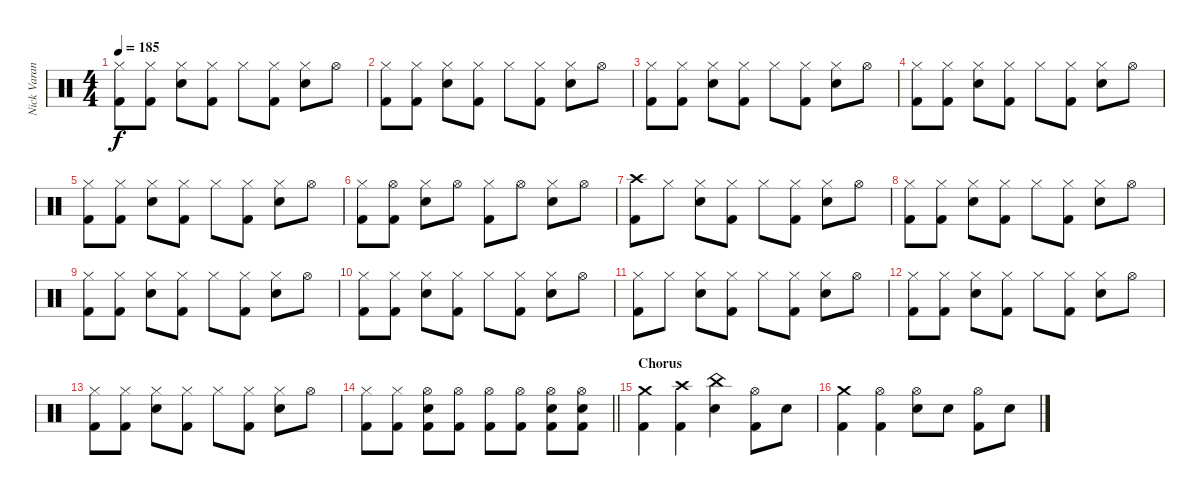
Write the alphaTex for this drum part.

\track ("Nick Varano (Drums)" "Nick Varan") {instrument percussion}
\staff {score}
\articulation defaults
\ts (4 4)
\tempo 185
\clef neutral
\ks c
("Hi-Hat (closed)" "Kick (hit) 2").8{dy f} ("Hi-Hat (closed)" "Kick (hit) 2").8 ("Hi-Hat (closed)" "Electric Snare (hit)").8 ("Hi-Hat (closed)" "Kick (hit) 2").8 "Hi-Hat (closed)".8 ("Hi-Hat (closed)" "Kick (hit) 2").8 ("Hi-Hat (closed)" "Electric Snare (hit)").8 "Hi-Hat (open)".8 |
("Hi-Hat (closed)" "Kick (hit) 2").8 ("Hi-Hat (closed)" "Kick (hit) 2").8 ("Hi-Hat (closed)" "Electric Snare (hit)").8 ("Hi-Hat (closed)" "Kick (hit) 2").8 "Hi-Hat (closed)".8 ("Hi-Hat (closed)" "Kick (hit) 2").8 ("Hi-Hat (closed)" "Electric Snare (hit)").8 "Hi-Hat (open)".8 |
("Hi-Hat (closed)" "Kick (hit) 2").8 ("Hi-Hat (closed)" "Kick (hit) 2").8 ("Hi-Hat (closed)" "Electric Snare (hit)").8 ("Hi-Hat (closed)" "Kick (hit) 2").8 "Hi-Hat (closed)".8 ("Hi-Hat (closed)" "Kick (hit) 2").8 ("Hi-Hat (closed)" "Electric Snare (hit)").8 "Hi-Hat (open)".8 |
("Hi-Hat (closed)" "Kick (hit) 2").8 ("Hi-Hat (closed)" "Kick (hit) 2").8 ("Hi-Hat (closed)" "Electric Snare (hit)").8 ("Hi-Hat (closed)" "Kick (hit) 2").8 "Hi-Hat (closed)".8 ("Hi-Hat (closed)" "Kick (hit) 2").8 ("Hi-Hat (closed)" "Electric Snare (hit)").8 "Hi-Hat (open)".8 |
("Hi-Hat (closed)" "Kick (hit) 2").8 ("Hi-Hat (closed)" "Kick (hit) 2").8 ("Hi-Hat (closed)" "Electric Snare (hit)").8 ("Hi-Hat (closed)" "Kick (hit) 2").8 "Hi-Hat (closed)".8 ("Hi-Hat (closed)" "Kick (hit) 2").8 ("Hi-Hat (closed)" "Electric Snare (hit)").8 "Hi-Hat (open)".8 |
("Hi-Hat (closed)" "Kick (hit) 2").8 ("Hi-Hat (open)" "Kick (hit) 2").8 ("Hi-Hat (closed)" "Electric Snare (hit)").8 "Hi-Hat (open)".8 ("Hi-Hat (closed)" "Kick (hit) 2").8 "Hi-Hat (open)".8 ("Hi-Hat (closed)" "Electric Snare (hit)").8 "Hi-Hat (open)".8 |
("Crash high (hit)" "Kick (hit) 2").8 "Hi-Hat (closed)".8 ("Hi-Hat (closed)" "Electric Snare (hit)").8 ("Hi-Hat (closed)" "Kick (hit) 2").8 "Hi-Hat (closed)".8 ("Hi-Hat (closed)" "Kick (hit) 2").8 ("Hi-Hat (closed)" "Electric Snare (hit)").8 "Hi-Hat (open)".8 |
("Hi-Hat (closed)" "Kick (hit) 2").8 ("Hi-Hat (closed)" "Kick (hit) 2").8 ("Hi-Hat (closed)" "Electric Snare (hit)").8 ("Hi-Hat (closed)" "Kick (hit) 2").8 "Hi-Hat (closed)".8 ("Hi-Hat (closed)" "Kick (hit) 2").8 ("Hi-Hat (closed)" "Electric Snare (hit)").8 "Hi-Hat (open)".8 |
("Hi-Hat (closed)" "Kick (hit) 2").8 ("Hi-Hat (closed)" "Kick (hit) 2").8 ("Hi-Hat (closed)" "Electric Snare (hit)").8 ("Hi-Hat (closed)" "Kick (hit) 2").8 "Hi-Hat (closed)".8 ("Hi-Hat (closed)" "Kick (hit) 2").8 ("Hi-Hat (closed)" "Electric Snare (hit)").8 "Hi-Hat (open)".8 |
("Hi-Hat (closed)" "Kick (hit) 2").8 ("Hi-Hat (closed)" "Kick (hit) 2").8 ("Hi-Hat (closed)" "Electric Snare (hit)").8 ("Hi-Hat (closed)" "Kick (hit) 2").8 "Hi-Hat (closed)".8 ("Hi-Hat (closed)" "Kick (hit) 2").8 ("Hi-Hat (closed)" "Electric Snare (hit)").8 "Hi-Hat (open)".8 |
("Hi-Hat (closed)" "Kick (hit) 2").8 "Hi-Hat (closed)".8 ("Hi-Hat (closed)" "Electric Snare (hit)").8 ("Hi-Hat (closed)" "Kick (hit) 2").8 "Hi-Hat (closed)".8 ("Hi-Hat (closed)" "Kick (hit) 2").8 ("Hi-Hat (closed)" "Electric Snare (hit)").8 "Hi-Hat (open)".8 |
("Hi-Hat (closed)" "Kick (hit) 2").8 ("Hi-Hat (closed)" "Kick (hit) 2").8 ("Hi-Hat (closed)" "Electric Snare (hit)").8 ("Hi-Hat (closed)" "Kick (hit) 2").8 "Hi-Hat (closed)".8 ("Hi-Hat (closed)" "Kick (hit) 2").8 ("Hi-Hat (closed)" "Electric Snare (hit)").8 "Hi-Hat (open)".8 |
("Hi-Hat (closed)" "Kick (hit) 2").8 ("Hi-Hat (closed)" "Kick (hit) 2").8 ("Hi-Hat (closed)" "Electric Snare (hit)").8 ("Hi-Hat (closed)" "Kick (hit) 2").8 "Hi-Hat (closed)".8 ("Hi-Hat (closed)" "Kick (hit) 2").8 ("Hi-Hat (closed)" "Electric Snare (hit)").8 "Hi-Hat (open)".8 |
\barLineRight lightlight
("Hi-Hat (closed)" "Kick (hit) 2").8 ("Hi-Hat (closed)" "Kick (hit) 2").8 ("Hi-Hat (open)" "Electric Snare (hit)" "Kick (hit) 2").8 ("Hi-Hat (open)" "Kick (hit) 2").8 ("Hi-Hat (open)" "Kick (hit) 2").8 ("Hi-Hat (open)" "Kick (hit) 2").8 ("Hi-Hat (open)" "Electric Snare (hit)" "Kick (hit) 2").8 ("Hi-Hat (open)" "Electric Snare (hit)" "Kick (hit) 2").8 |
\section ("" "Chorus")
("Crash medium (hit)" "Kick (hit) 2").4 ("Crash high (hit)" "Kick (hit) 2").4 ("China (hit)" "Electric Snare (hit)").4 ("Hi-Hat (open)" "Kick (hit) 2").8 "Electric Snare (hit)".8 |
("Crash medium (hit)" "Kick (hit) 2").4 ("Hi-Hat (open)" "Kick (hit) 2").4 ("Hi-Hat (open)" "Electric Snare (hit)").8 "Electric Snare (hit)".8 ("Hi-Hat (open)" "Kick (hit) 2").8 "Electric Snare (hit)".8
